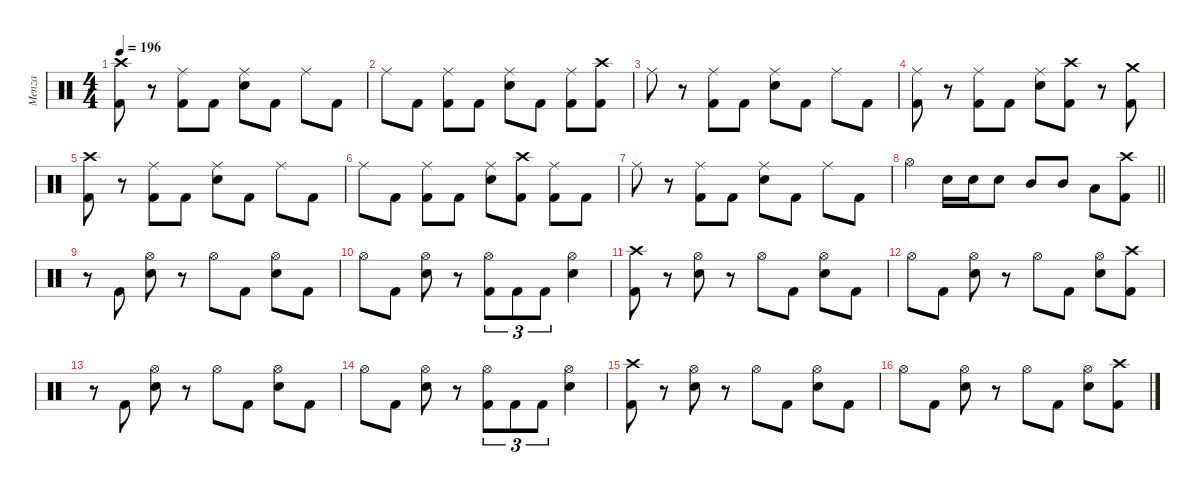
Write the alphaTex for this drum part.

\defaultSystemsLayout 4
\hideDynamics
\bracketExtendMode nobrackets
\firstSystemTrackNameMode fullname
\otherSystemsTrackNameOrientation horizontal
\track ("Menza" "drm.") {instrument percussion}
\staff {score}
\articulation defaults
\ts (4 4)
\tempo 196
\clef neutral
\ks c
("Crash high (hit)" "Kick (hit) 2").8{dy f beam Down} r.8{beam Down} ("Ride (middle)" "Kick (hit) 2").8{dy ff beam Down} "Kick (hit) 2".8{dy fff beam Down} ("Ride (middle)" "Snare (hit) 2").8{dy ff beam Down} "Kick (hit) 2".8{dy fff beam Down} "Ride (middle)".8{dy ff beam Down} "Kick (hit) 2".8{dy fff beam Down} |
"Ride (middle)".8{dy ff beam Down} "Kick (hit) 2".8{dy fff beam Down} ("Ride (middle)" "Kick (hit) 2").8{dy ff beam Down} "Kick (hit) 2".8{dy fff beam Down} ("Ride (middle)" "Snare (hit) 2").8{dy ff beam Down} "Kick (hit) 2".8{dy fff beam Down} ("Ride (middle)" "Kick (hit) 2").8{dy f beam Down} ("Crash high (hit)" "Kick (hit) 2").8{beam Down} |
"Ride (middle)".8{beam Down} r.8{beam Down} ("Ride (middle)" "Kick (hit) 2").8{dy ff beam Down} "Kick (hit) 2".8{dy fff beam Down} ("Ride (middle)" "Snare (hit) 2").8{dy ff beam Down} "Kick (hit) 2".8{dy fff beam Down} "Ride (middle)".8{dy ff beam Down} "Kick (hit) 2".8{dy fff beam Down} |
("Ride (middle)" "Kick (hit) 2").8{dy ff beam Down} r.8{beam Down} ("Ride (middle)" "Kick (hit) 2").8{beam Down} "Kick (hit) 2".8{dy fff beam Down} ("Ride (middle)" "Snare (hit) 2").8{dy ff beam Down} ("Crash high (hit)" "Kick (hit) 2").8{dy fff beam Down} r.8{beam Down} ("Crash medium (hit)" "Kick (hit) 2").8{beam Down} |
("Crash high (hit)" "Kick (hit) 2").8{dy f beam Down} r.8{beam Down} ("Ride (middle)" "Kick (hit) 2").8{dy ff beam Down} "Kick (hit) 2".8{dy fff beam Down} ("Ride (middle)" "Snare (hit) 2").8{dy ff beam Down} "Kick (hit) 2".8{dy fff beam Down} "Ride (middle)".8{dy ff beam Down} "Kick (hit) 2".8{dy fff beam Down} |
"Ride (middle)".8{dy ff beam Down} "Kick (hit) 2".8{dy fff beam Down} ("Ride (middle)" "Kick (hit) 2").8{dy ff beam Down} "Kick (hit) 2".8{dy fff beam Down} ("Ride (middle)" "Snare (hit) 2").8{dy ff beam Down} ("Crash high (hit)" "Kick (hit) 2").8{beam Down} ("Ride (middle)" "Kick (hit) 2").8{dy f beam Down} "Kick (hit) 2".8{dy fff beam Down} |
"Ride (middle)".8{dy f beam Down} r.8{beam Down} ("Ride (middle)" "Kick (hit) 2").8{dy ff beam Down} "Kick (hit) 2".8{dy fff beam Down} ("Ride (middle)" "Snare (hit) 2").8{dy ff beam Down} "Kick (hit) 2".8{dy fff beam Down} "Ride (middle)".8{dy ff beam Down} "Kick (hit) 2".8{dy fff beam Down} |
\barLineRight lightlight "Hi-Hat (open)".4{dy f beam Down} "Snare (hit) 2".16{beam Down} "Snare (hit) 2".16{beam Down} "Snare (hit) 2".8{beam Down} "Mid Tom (hit)".8{beam Up} "Mid Tom (hit)".8{dy ff beam Up} "Low Tom (hit)".8{beam Down}
("Crash high (hit)" "Kick (hit) 2").8{beam Down} |
r.8{beam Down} "Kick (hit) 2".8{dy fff beam Up} ("Hi-Hat (open)" "Snare (hit) 2").8{dy f beam Down} r.8{beam Down} "Hi-Hat (open)".8{beam Down} "Kick (hit) 2".8{dy fff beam Down} ("Hi-Hat (open)" "Snare (hit) 2").8{dy f beam Down} "Kick (hit) 2".8{dy fff beam Down} |
"Hi-Hat (open)".8{dy f beam Down} "Kick (hit) 2".8{dy fff beam Down} ("Hi-Hat (open)" "Snare (hit) 2").8{dy f beam Down} r.8{beam Down} ("Hi-Hat (open)" "Kick (hit) 2").8{tu (3 2) beam Down} "Kick (hit) 2".8{tu (3 2) dy fff beam Down} "Kick (hit) 2".8{tu (3 2) beam Down} ("Hi-Hat (open)" "Snare (hit) 2").4{dy f beam Down} |
("Crash high (hit)" "Kick (hit) 2").8{dy ff beam Down} r.8{beam Down} ("Hi-Hat (open)" "Snare (hit) 2").8{dy f beam Down} r.8{beam Down} "Hi-Hat (open)".8{beam Down} "Kick (hit) 2".8{dy fff beam Down} ("Hi-Hat (open)" "Snare (hit) 2").8{dy f beam Down} "Kick (hit) 2".8{dy fff beam Down} |
"Hi-Hat (open)".8{dy f beam Down} "Kick (hit) 2".8{dy fff beam Down} ("Hi-Hat (open)" "Snare (hit) 2").8{dy f beam Down} r.8{beam Down} "Hi-Hat (open)".8{beam Down} "Kick (hit) 2".8{dy fff beam Down} ("Hi-Hat (open)" "Snare (hit) 2").8{dy f beam Down} ("Crash high (hit)" "Kick (hit) 2").8{dy fff beam Down} |
r.8{beam Down} "Kick (hit) 2".8{beam Up} ("Hi-Hat (open)" "Snare (hit) 2").8{dy f beam Down} r.8{beam Down} "Hi-Hat (open)".8{beam Down} "Kick (hit) 2".8{dy fff beam Down} ("Hi-Hat (open)" "Snare (hit) 2").8{dy f beam Down} "Kick (hit) 2".8{dy fff beam Down} |
"Hi-Hat (open)".8{dy f beam Down} "Kick (hit) 2".8{dy fff beam Down} ("Hi-Hat (open)" "Snare (hit) 2").8{dy f beam Down} r.8{beam Down} ("Hi-Hat (open)" "Kick (hit) 2").8{tu (3 2) beam Down} "Kick (hit) 2".8{tu (3 2) dy fff beam Down} "Kick (hit) 2".8{tu (3 2) beam Down} ("Hi-Hat (open)" "Snare (hit) 2").4{dy f beam Down} |
("Crash high (hit)" "Kick (hit) 2").8{dy ff beam Down} r.8{beam Down} ("Hi-Hat (open)" "Snare (hit) 2").8{dy f beam Down} r.8{beam Down} "Hi-Hat (open)".8{beam Down} "Kick (hit) 2".8{dy fff beam Down} ("Hi-Hat (open)" "Snare (hit) 2").8{dy f beam Down} "Kick (hit) 2".8{dy fff beam Down} |
"Hi-Hat (open)".8{dy f beam Down} "Kick (hit) 2".8{dy fff beam Down} ("Hi-Hat (open)" "Snare (hit) 2").8{dy f beam Down} r.8{beam Down} "Hi-Hat (open)".8{beam Down} "Kick (hit) 2".8{dy fff beam Down} ("Hi-Hat (open)" "Snare (hit) 2").8{dy f beam Down} ("Crash high (hit)" "Kick (hit) 2").8{dy fff beam Down}
